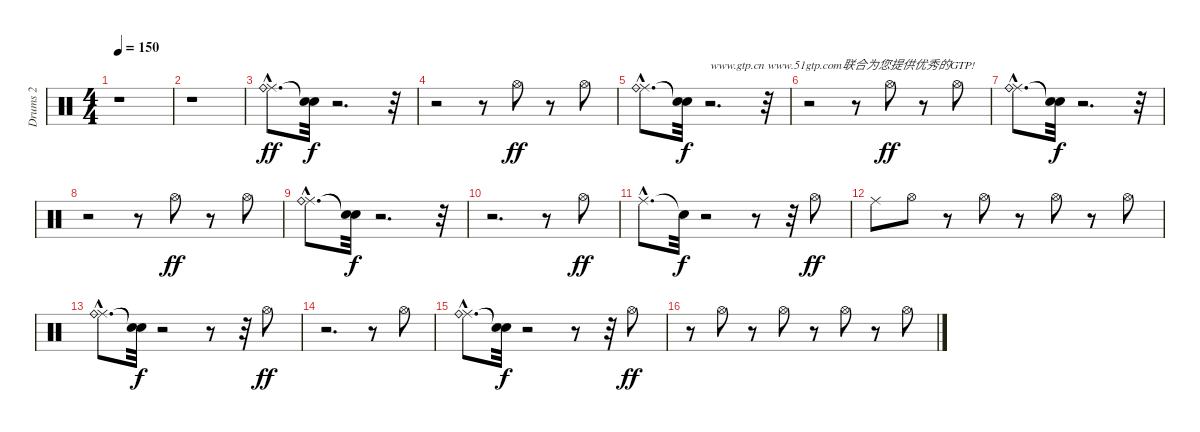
\track ("Drums 2" "Drums 2") {instrument percussion}
\staff {score}
\articulation defaults
\ts (4 4)
\tempo 150
\clef neutral
\ks c
r.1{dy ff} |
r.1 |
("Ride (middle)"{hac} "Ride (bell)"{hac}).8{d} ("Snare (hit)"{t} "Snare (hit)"{t}).32{dy f} r.2{d} r.32 |
r.2 r.8 "Hi-Hat (open)".8{dy ff} r.8 "Hi-Hat (open)".8 |
("Ride (middle)"{hac} "Ride (bell)"{hac}).8{d} ("Snare (hit)"{t} "Snare (hit)"{t}).32{dy f} r.2{d txt "www.gtp.cn www.51gtp.com联合为您提供优秀的GTP!"} r.32 |
r.2 r.8 "Hi-Hat (open)".8{dy ff} r.8 "Hi-Hat (open)".8 |
("Ride (middle)"{hac} "Ride (bell)"{hac}).8{d} ("Snare (hit)"{t} "Snare (hit)"{t}).32{dy f} r.2{d} r.32 |
r.2 r.8 "Hi-Hat (open)".8{dy ff} r.8 "Hi-Hat (open)".8 |
("Ride (middle)"{hac} "Ride (bell)"{hac}).8{d} ("Snare (hit)"{t} "Snare (hit)"{t}).32{dy f} r.2{d} r.32 |
r.2{d} r.8 "Hi-Hat (open)".8{dy ff} |
"Ride (middle)"{hac}.8{d} "Snare (hit)"{t}.32{dy f} r.2 r.8 r.32 "Hi-Hat (open)".8{dy ff} |
"Ride (middle)".8 "Hi-Hat (open)".8 r.8 "Hi-Hat (open)".8 r.8 "Hi-Hat (open)".8 r.8 "Hi-Hat (open)".8 |
("Ride (middle)"{hac} "Ride (bell)"{hac}).8{d} ("Snare (hit)"{t} "Snare (hit)"{t}).32{dy f} r.2 r.8 r.32 "Hi-Hat (open)".8{dy ff} |
r.2{d} r.8 "Hi-Hat (open)".8 |
("Ride (middle)"{hac} "Ride (bell)"{hac}).8{d} ("Snare (hit)"{t} "Snare (hit)"{t}).32{dy f} r.2 r.8 r.32 "Hi-Hat (open)".8{dy ff} |
r.8 "Hi-Hat (open)".8 r.8 "Hi-Hat (open)".8 r.8 "Hi-Hat (open)".8 r.8 "Hi-Hat (open)".8
